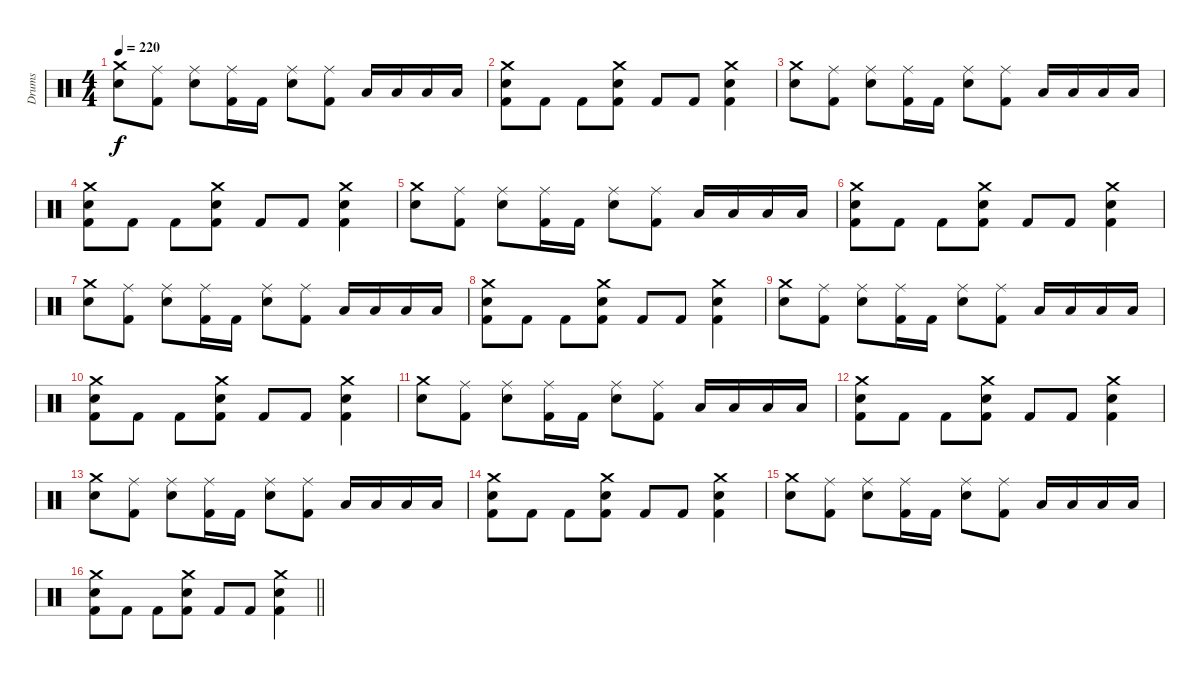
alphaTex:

\track ("Drums" "Drums") {instrument percussion}
\staff {score}
\articulation defaults
\ts (4 4)
\tempo 220
\clef neutral
\ks c
("Crash medium (hit)" "Electric Snare (hit)").8{dy f} ("Ride (middle)" "Kick (hit) 2").8 ("Ride (middle)" "Electric Snare (hit)").8 ("Ride (middle)" "Kick (hit) 2").16 "Kick (hit) 2".16 ("Ride (middle)" "Electric Snare (hit)").8 ("Ride (middle)" "Kick (hit) 2").8 "Low Tom (hit)".16 "Low Tom (hit)".16 "Low Tom (hit)".16 "Low Tom (hit)".16 |
("Crash medium (hit)" "Electric Snare (hit)" "Kick (hit) 2").8 "Kick (hit) 2".8 "Kick (hit) 2".8 ("Crash medium (hit)" "Electric Snare (hit)" "Kick (hit) 2").8 "Kick (hit) 2".8 "Kick (hit) 2".8 ("Crash medium (hit)" "Electric Snare (hit)" "Kick (hit) 2").4 |
("Crash medium (hit)" "Electric Snare (hit)").8 ("Ride (middle)" "Kick (hit) 2").8 ("Ride (middle)" "Electric Snare (hit)").8 ("Ride (middle)" "Kick (hit) 2").16 "Kick (hit) 2".16 ("Ride (middle)" "Electric Snare (hit)").8 ("Ride (middle)" "Kick (hit) 2").8 "Low Tom (hit)".16 "Low Tom (hit)".16 "Low Tom (hit)".16 "Low Tom (hit)".16 |
("Crash medium (hit)" "Electric Snare (hit)" "Kick (hit) 2").8 "Kick (hit) 2".8 "Kick (hit) 2".8 ("Crash medium (hit)" "Electric Snare (hit)" "Kick (hit) 2").8 "Kick (hit) 2".8 "Kick (hit) 2".8 ("Crash medium (hit)" "Electric Snare (hit)" "Kick (hit) 2").4 |
("Crash medium (hit)" "Electric Snare (hit)").8 ("Ride (middle)" "Kick (hit) 2").8 ("Ride (middle)" "Electric Snare (hit)").8 ("Ride (middle)" "Kick (hit) 2").16 "Kick (hit) 2".16 ("Ride (middle)" "Electric Snare (hit)").8 ("Ride (middle)" "Kick (hit) 2").8 "Low Tom (hit)".16 "Low Tom (hit)".16 "Low Tom (hit)".16 "Low Tom (hit)".16 |
("Crash medium (hit)" "Electric Snare (hit)" "Kick (hit) 2").8 "Kick (hit) 2".8 "Kick (hit) 2".8 ("Crash medium (hit)" "Electric Snare (hit)" "Kick (hit) 2").8 "Kick (hit) 2".8 "Kick (hit) 2".8 ("Crash medium (hit)" "Electric Snare (hit)" "Kick (hit) 2").4 |
("Crash medium (hit)" "Electric Snare (hit)").8 ("Ride (middle)" "Kick (hit) 2").8 ("Ride (middle)" "Electric Snare (hit)").8 ("Ride (middle)" "Kick (hit) 2").16 "Kick (hit) 2".16 ("Ride (middle)" "Electric Snare (hit)").8 ("Ride (middle)" "Kick (hit) 2").8 "Low Tom (hit)".16 "Low Tom (hit)".16 "Low Tom (hit)".16 "Low Tom (hit)".16 |
("Crash medium (hit)" "Electric Snare (hit)" "Kick (hit) 2").8 "Kick (hit) 2".8 "Kick (hit) 2".8 ("Crash medium (hit)" "Electric Snare (hit)" "Kick (hit) 2").8 "Kick (hit) 2".8 "Kick (hit) 2".8 ("Crash medium (hit)" "Electric Snare (hit)" "Kick (hit) 2").4 |
("Crash medium (hit)" "Electric Snare (hit)").8 ("Ride (middle)" "Kick (hit) 2").8 ("Ride (middle)" "Electric Snare (hit)").8 ("Ride (middle)" "Kick (hit) 2").16 "Kick (hit) 2".16 ("Ride (middle)" "Electric Snare (hit)").8 ("Ride (middle)" "Kick (hit) 2").8 "Low Tom (hit)".16 "Low Tom (hit)".16 "Low Tom (hit)".16 "Low Tom (hit)".16 |
("Crash medium (hit)" "Electric Snare (hit)" "Kick (hit) 2").8 "Kick (hit) 2".8 "Kick (hit) 2".8 ("Crash medium (hit)" "Electric Snare (hit)" "Kick (hit) 2").8 "Kick (hit) 2".8 "Kick (hit) 2".8 ("Crash medium (hit)" "Electric Snare (hit)" "Kick (hit) 2").4 |
("Crash medium (hit)" "Electric Snare (hit)").8 ("Ride (middle)" "Kick (hit) 2").8 ("Ride (middle)" "Electric Snare (hit)").8 ("Ride (middle)" "Kick (hit) 2").16 "Kick (hit) 2".16 ("Ride (middle)" "Electric Snare (hit)").8 ("Ride (middle)" "Kick (hit) 2").8 "Low Tom (hit)".16 "Low Tom (hit)".16 "Low Tom (hit)".16 "Low Tom (hit)".16 |
("Crash medium (hit)" "Electric Snare (hit)" "Kick (hit) 2").8 "Kick (hit) 2".8 "Kick (hit) 2".8 ("Crash medium (hit)" "Electric Snare (hit)" "Kick (hit) 2").8 "Kick (hit) 2".8 "Kick (hit) 2".8 ("Crash medium (hit)" "Electric Snare (hit)" "Kick (hit) 2").4 |
("Crash medium (hit)" "Electric Snare (hit)").8 ("Ride (middle)" "Kick (hit) 2").8 ("Ride (middle)" "Electric Snare (hit)").8 ("Ride (middle)" "Kick (hit) 2").16 "Kick (hit) 2".16 ("Ride (middle)" "Electric Snare (hit)").8 ("Ride (middle)" "Kick (hit) 2").8 "Low Tom (hit)".16 "Low Tom (hit)".16 "Low Tom (hit)".16 "Low Tom (hit)".16 |
("Crash medium (hit)" "Electric Snare (hit)" "Kick (hit) 2").8 "Kick (hit) 2".8 "Kick (hit) 2".8 ("Crash medium (hit)" "Electric Snare (hit)" "Kick (hit) 2").8 "Kick (hit) 2".8 "Kick (hit) 2".8 ("Crash medium (hit)" "Electric Snare (hit)" "Kick (hit) 2").4 |
("Crash medium (hit)" "Electric Snare (hit)").8 ("Ride (middle)" "Kick (hit) 2").8 ("Ride (middle)" "Electric Snare (hit)").8 ("Ride (middle)" "Kick (hit) 2").16 "Kick (hit) 2".16 ("Ride (middle)" "Electric Snare (hit)").8 ("Ride (middle)" "Kick (hit) 2").8 "Low Tom (hit)".16 "Low Tom (hit)".16 "Low Tom (hit)".16 "Low Tom (hit)".16 |
\barLineRight lightlight
("Crash medium (hit)" "Electric Snare (hit)" "Kick (hit) 2").8 "Kick (hit) 2".8 "Kick (hit) 2".8 ("Crash medium (hit)" "Electric Snare (hit)" "Kick (hit) 2").8 "Kick (hit) 2".8 "Kick (hit) 2".8 ("Crash medium (hit)" "Electric Snare (hit)" "Kick (hit) 2").4
